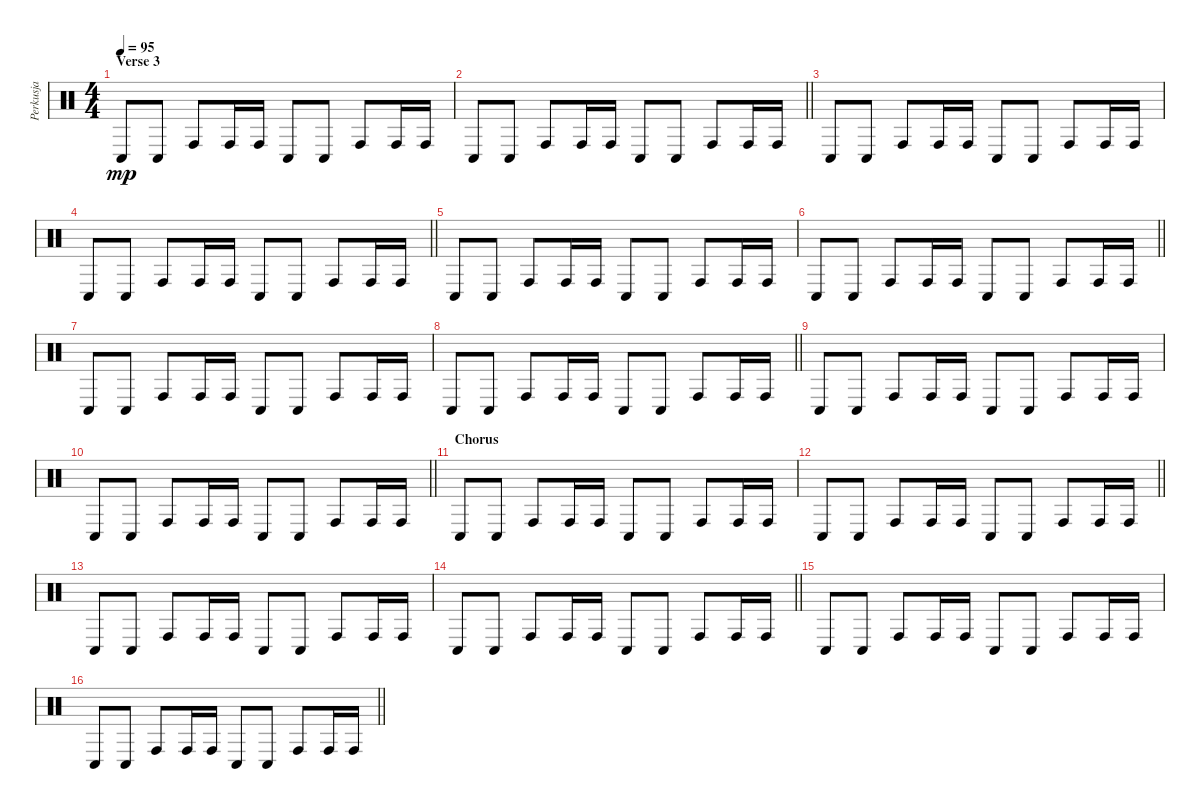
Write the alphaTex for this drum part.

\track ("Perkusja" "Perkusja") {instrument percussion}
\staff {score}
\articulation defaults
\ts (4 4)
\section ("" "Verse 3")
\tempo 95
\clef neutral
\ks c "Conga low (hit)".8{dy mp} "Conga low (hit)".8 "Conga high (hit)".8 "Conga high (hit)".16 "Conga high (hit)".16 "Conga low (hit)".8 "Conga low (hit)".8 "Conga high (hit)".8 "Conga high (hit)".16 "Conga high (hit)".16
|
\barLineRight lightlight "Conga low (hit)".8 "Conga low (hit)".8 "Conga high (hit)".8 "Conga high (hit)".16 "Conga high (hit)".16 "Conga low (hit)".8 "Conga low (hit)".8 "Conga high (hit)".8 "Conga high (hit)".16 "Conga high (hit)".16
|
"Conga low (hit)".8 "Conga low (hit)".8 "Conga high (hit)".8 "Conga high (hit)".16 "Conga high (hit)".16 "Conga low (hit)".8 "Conga low (hit)".8 "Conga high (hit)".8 "Conga high (hit)".16 "Conga high (hit)".16 |
\barLineRight lightlight "Conga low (hit)".8 "Conga low (hit)".8 "Conga high (hit)".8 "Conga high (hit)".16 "Conga high (hit)".16 "Conga low (hit)".8 "Conga low (hit)".8 "Conga high (hit)".8 "Conga high (hit)".16 "Conga high (hit)".16
|
"Conga low (hit)".8 "Conga low (hit)".8 "Conga high (hit)".8 "Conga high (hit)".16 "Conga high (hit)".16 "Conga low (hit)".8 "Conga low (hit)".8 "Conga high (hit)".8 "Conga high (hit)".16 "Conga high (hit)".16 |
\barLineRight lightlight "Conga low (hit)".8 "Conga low (hit)".8 "Conga high (hit)".8 "Conga high (hit)".16 "Conga high (hit)".16 "Conga low (hit)".8 "Conga low (hit)".8 "Conga high (hit)".8 "Conga high (hit)".16 "Conga high (hit)".16
|
"Conga low (hit)".8 "Conga low (hit)".8 "Conga high (hit)".8 "Conga high (hit)".16 "Conga high (hit)".16 "Conga low (hit)".8 "Conga low (hit)".8 "Conga high (hit)".8 "Conga high (hit)".16 "Conga high (hit)".16 |
\barLineRight lightlight "Conga low (hit)".8 "Conga low (hit)".8 "Conga high (hit)".8 "Conga high (hit)".16 "Conga high (hit)".16 "Conga low (hit)".8 "Conga low (hit)".8 "Conga high (hit)".8 "Conga high (hit)".16 "Conga high (hit)".16
|
"Conga low (hit)".8 "Conga low (hit)".8 "Conga high (hit)".8 "Conga high (hit)".16 "Conga high (hit)".16 "Conga low (hit)".8 "Conga low (hit)".8 "Conga high (hit)".8 "Conga high (hit)".16 "Conga high (hit)".16 |
\barLineRight lightlight "Conga low (hit)".8 "Conga low (hit)".8 "Conga high (hit)".8 "Conga high (hit)".16 "Conga high (hit)".16 "Conga low (hit)".8 "Conga low (hit)".8 "Conga high (hit)".8 "Conga high (hit)".16 "Conga high (hit)".16
|
\section ("" "Chorus")
"Conga low (hit)".8 "Conga low (hit)".8 "Conga high (hit)".8 "Conga high (hit)".16 "Conga high (hit)".16 "Conga low (hit)".8 "Conga low (hit)".8 "Conga high (hit)".8 "Conga high (hit)".16 "Conga high (hit)".16 |
\barLineRight lightlight "Conga low (hit)".8 "Conga low (hit)".8 "Conga high (hit)".8 "Conga high (hit)".16 "Conga high (hit)".16 "Conga low (hit)".8 "Conga low (hit)".8 "Conga high (hit)".8 "Conga high (hit)".16 "Conga high (hit)".16
|
"Conga low (hit)".8 "Conga low (hit)".8 "Conga high (hit)".8 "Conga high (hit)".16 "Conga high (hit)".16 "Conga low (hit)".8 "Conga low (hit)".8 "Conga high (hit)".8 "Conga high (hit)".16 "Conga high (hit)".16 |
\barLineRight lightlight "Conga low (hit)".8 "Conga low (hit)".8 "Conga high (hit)".8 "Conga high (hit)".16 "Conga high (hit)".16 "Conga low (hit)".8 "Conga low (hit)".8 "Conga high (hit)".8 "Conga high (hit)".16 "Conga high (hit)".16
|
"Conga low (hit)".8 "Conga low (hit)".8 "Conga high (hit)".8 "Conga high (hit)".16 "Conga high (hit)".16 "Conga low (hit)".8 "Conga low (hit)".8 "Conga high (hit)".8 "Conga high (hit)".16 "Conga high (hit)".16 |
\barLineRight lightlight "Conga low (hit)".8 "Conga low (hit)".8 "Conga high (hit)".8 "Conga high (hit)".16 "Conga high (hit)".16 "Conga low (hit)".8 "Conga low (hit)".8 "Conga high (hit)".8 "Conga high (hit)".16 "Conga high (hit)".16
